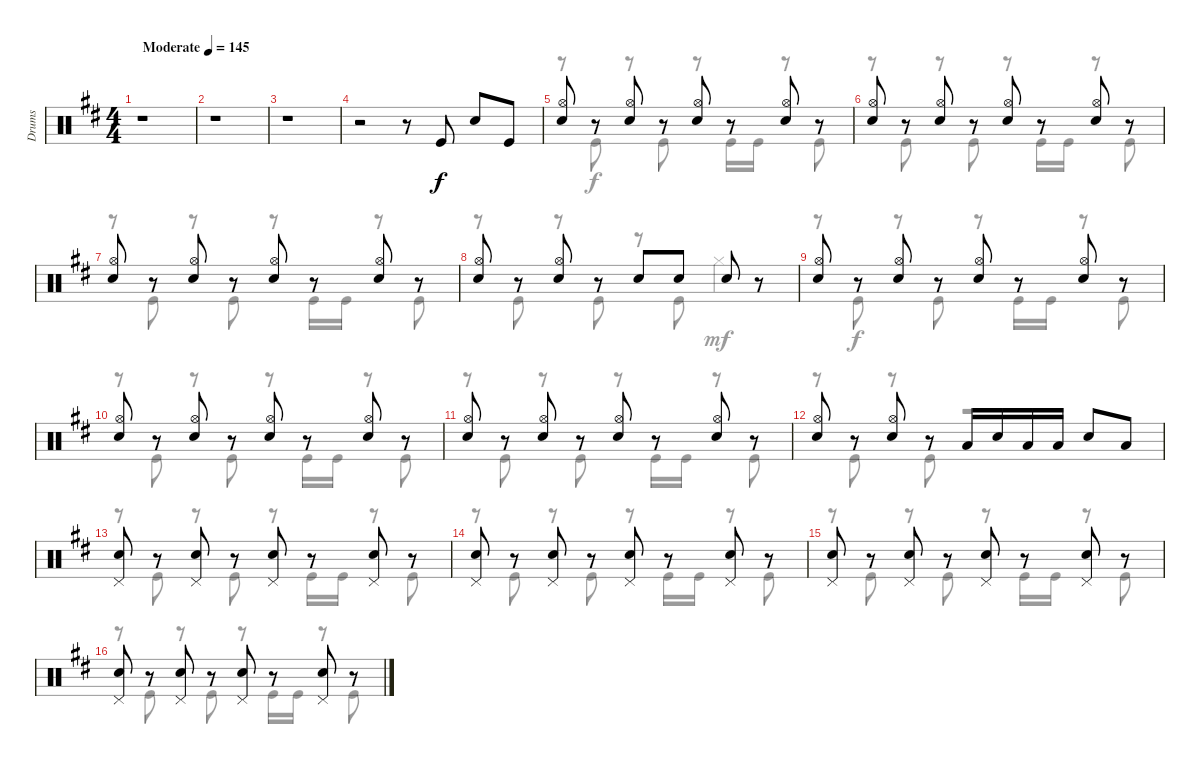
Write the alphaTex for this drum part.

\track ("Drums" "Drums") {instrument percussion}
\staff {score}
\articulation defaults
\voice
\ts (4 4)
\tempo (145 "Moderate")
\clef neutral
\ks d
r.1{dy f} |
r.1 |
r.1 |
r.2 r.8 "Kick (hit)".8 "Electric Snare (hit)".8 "Kick (hit)".8 |
("Hi-Hat (open)" "Electric Snare (hit)").8 r.8 ("Hi-Hat (open)" "Electric Snare (hit)").8 r.8 ("Hi-Hat (open)" "Electric Snare (hit)").8 r.8 ("Hi-Hat (open)" "Electric Snare (hit)").8 r.8 |
("Hi-Hat (open)" "Electric Snare (hit)").8 r.8 ("Hi-Hat (open)" "Electric Snare (hit)").8 r.8 ("Hi-Hat (open)" "Electric Snare (hit)").8 r.8 ("Hi-Hat (open)" "Electric Snare (hit)").8 r.8 |
("Hi-Hat (open)" "Electric Snare (hit)").8 r.8 ("Hi-Hat (open)" "Electric Snare (hit)").8 r.8 ("Hi-Hat (open)" "Electric Snare (hit)").8 r.8 ("Hi-Hat (open)" "Electric Snare (hit)").8 r.8 |
("Hi-Hat (open)" "Electric Snare (hit)").8 r.8 ("Hi-Hat (open)" "Electric Snare (hit)").8 r.8 "Electric Snare (hit)".8 "Electric Snare (hit)".8 "Electric Snare (hit)".8 r.8 |
("Hi-Hat (open)" "Electric Snare (hit)").8 r.8 ("Hi-Hat (open)" "Electric Snare (hit)").8 r.8 ("Hi-Hat (open)" "Electric Snare (hit)").8 r.8 ("Hi-Hat (open)" "Electric Snare (hit)").8 r.8 |
("Hi-Hat (open)" "Electric Snare (hit)").8 r.8 ("Hi-Hat (open)" "Electric Snare (hit)").8 r.8 ("Hi-Hat (open)" "Electric Snare (hit)").8 r.8 ("Hi-Hat (open)" "Electric Snare (hit)").8 r.8 |
("Hi-Hat (open)" "Electric Snare (hit)").8 r.8 ("Hi-Hat (open)" "Electric Snare (hit)").8 r.8 ("Hi-Hat (open)" "Electric Snare (hit)").8 r.8 ("Hi-Hat (open)" "Electric Snare (hit)").8 r.8 |
("Hi-Hat (open)" "Electric Snare (hit)").8 r.8 ("Hi-Hat (open)" "Electric Snare (hit)").8 r.8 "Low Tom (hit)".16 "Electric Snare (hit)".16 "Low Tom (hit)".16 "Low Tom (hit)".16 "Electric Snare (hit)".8 "Low Tom (hit)".8 |
("Pedal Hi-Hat (hit)" "Electric Snare (hit)").8 r.8 ("Pedal Hi-Hat (hit)" "Electric Snare (hit)").8 r.8 ("Pedal Hi-Hat (hit)" "Electric Snare (hit)").8 r.8 ("Pedal Hi-Hat (hit)" "Electric Snare (hit)").8 r.8 |
("Pedal Hi-Hat (hit)" "Electric Snare (hit)").8 r.8 ("Pedal Hi-Hat (hit)" "Electric Snare (hit)").8 r.8 ("Pedal Hi-Hat (hit)" "Electric Snare (hit)").8 r.8 ("Pedal Hi-Hat (hit)" "Electric Snare (hit)").8 r.8 |
("Pedal Hi-Hat (hit)" "Electric Snare (hit)").8 r.8 ("Pedal Hi-Hat (hit)" "Electric Snare (hit)").8 r.8 ("Pedal Hi-Hat (hit)" "Electric Snare (hit)").8 r.8 ("Pedal Hi-Hat (hit)" "Electric Snare (hit)").8 r.8 |
("Pedal Hi-Hat (hit)" "Electric Snare (hit)").8 r.8 ("Pedal Hi-Hat (hit)" "Electric Snare (hit)").8 r.8 ("Pedal Hi-Hat (hit)" "Electric Snare (hit)").8 r.8 ("Pedal Hi-Hat (hit)" "Electric Snare (hit)").8 r.8
\voice
\clef neutral
\ottava regular
\simile none
\ks d
|
|
|
|
r.8 "Kick (hit)".8 r.8 "Kick (hit)".8 r.8 "Kick (hit)".16 "Kick (hit)".16 r.8 "Kick (hit)".8 |
r.8 "Kick (hit)".8 r.8 "Kick (hit)".8 r.8 "Kick (hit)".16 "Kick (hit)".16 r.8 "Kick (hit)".8 |
r.8 "Kick (hit)".8 r.8 "Kick (hit)".8 r.8 "Kick (hit)".16 "Kick (hit)".16 r.8 "Kick (hit)".8 |
r.8 "Kick (hit)".8 r.8 "Kick (hit)".8 r.8 "Kick (hit)".8 "Hi-Hat (closed)".4{dy mf} |
r.8 "Kick (hit)".8{dy f} r.8 "Kick (hit)".8 r.8 "Kick (hit)".16 "Kick (hit)".16 r.8 "Kick (hit)".8 |
r.8 "Kick (hit)".8 r.8 "Kick (hit)".8 r.8 "Kick (hit)".16 "Kick (hit)".16 r.8 "Kick (hit)".8 |
r.8 "Kick (hit)".8 r.8 "Kick (hit)".8 r.8 "Kick (hit)".16 "Kick (hit)".16 r.8 "Kick (hit)".8 |
r.8 "Kick (hit)".8 r.8 "Kick (hit)".8 r.2 |
r.8 "Kick (hit)".8 r.8 "Kick (hit)".8 r.8 "Kick (hit)".16 "Kick (hit)".16 r.8 "Kick (hit)".8 |
r.8 "Kick (hit)".8 r.8 "Kick (hit)".8 r.8 "Kick (hit)".16 "Kick (hit)".16 r.8 "Kick (hit)".8 |
r.8 "Kick (hit)".8 r.8 "Kick (hit)".8 r.8 "Kick (hit)".16 "Kick (hit)".16 r.8 "Kick (hit)".8 |
r.8 "Kick (hit)".8 r.8 "Kick (hit)".8 r.8 "Kick (hit)".16 "Kick (hit)".16 r.8 "Kick (hit)".8
